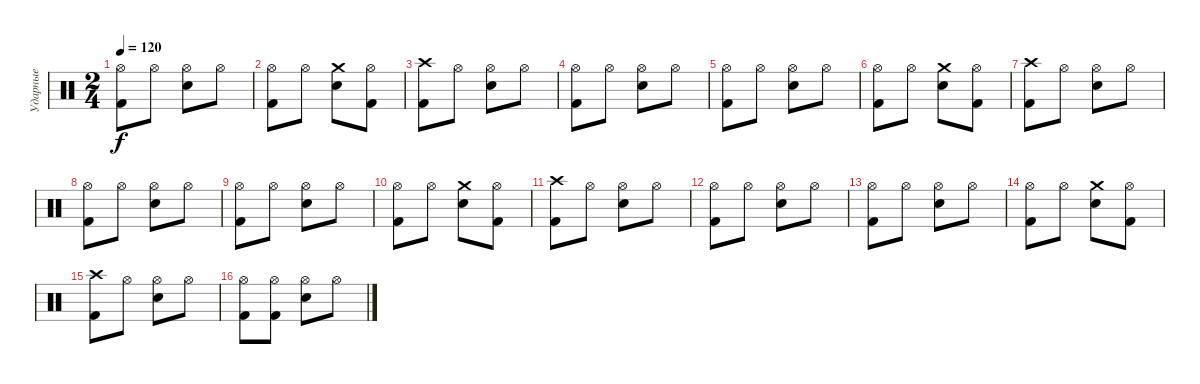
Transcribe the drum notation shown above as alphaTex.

\track ("Ударные" "Ударные") {instrument percussion}
\staff {score}
\articulation defaults
\ts (2 4)
\tempo 120
\clef neutral
\ks c
("Hi-Hat (open)" "Kick (hit) 2").8{dy f} "Hi-Hat (open)".8 ("Hi-Hat (open)" "Electric Snare (hit)").8 "Hi-Hat (open)".8 |
("Hi-Hat (open)" "Kick (hit) 2").8 "Hi-Hat (open)".8 ("Crash medium (hit)" "Electric Snare (hit)").8 ("Hi-Hat (open)" "Kick (hit) 2").8 |
("Crash high (hit)" "Kick (hit) 2").8 "Hi-Hat (open)".8 ("Hi-Hat (open)" "Electric Snare (hit)").8 "Hi-Hat (open)".8 |
("Hi-Hat (open)" "Kick (hit) 2").8 "Hi-Hat (open)".8 ("Hi-Hat (open)" "Electric Snare (hit)").8 "Hi-Hat (open)".8 |
("Hi-Hat (open)" "Kick (hit) 2").8 "Hi-Hat (open)".8 ("Hi-Hat (open)" "Electric Snare (hit)").8 "Hi-Hat (open)".8 |
("Hi-Hat (open)" "Kick (hit) 2").8 "Hi-Hat (open)".8 ("Crash medium (hit)" "Electric Snare (hit)").8 ("Hi-Hat (open)" "Kick (hit) 2").8 |
("Crash high (hit)" "Kick (hit) 2").8 "Hi-Hat (open)".8 ("Hi-Hat (open)" "Electric Snare (hit)").8 "Hi-Hat (open)".8 |
("Hi-Hat (open)" "Kick (hit) 2").8 "Hi-Hat (open)".8 ("Hi-Hat (open)" "Electric Snare (hit)").8 "Hi-Hat (open)".8 |
("Hi-Hat (open)" "Kick (hit) 2").8 "Hi-Hat (open)".8 ("Hi-Hat (open)" "Electric Snare (hit)").8 "Hi-Hat (open)".8 |
("Hi-Hat (open)" "Kick (hit) 2").8 "Hi-Hat (open)".8 ("Crash medium (hit)" "Electric Snare (hit)").8 ("Hi-Hat (open)" "Kick (hit) 2").8 |
("Crash high (hit)" "Kick (hit) 2").8 "Hi-Hat (open)".8 ("Hi-Hat (open)" "Electric Snare (hit)").8 "Hi-Hat (open)".8 |
("Hi-Hat (open)" "Kick (hit) 2").8 "Hi-Hat (open)".8 ("Hi-Hat (open)" "Electric Snare (hit)").8 "Hi-Hat (open)".8 |
("Hi-Hat (open)" "Kick (hit) 2").8 "Hi-Hat (open)".8 ("Hi-Hat (open)" "Electric Snare (hit)").8 "Hi-Hat (open)".8 |
("Hi-Hat (open)" "Kick (hit) 2").8 "Hi-Hat (open)".8 ("Crash medium (hit)" "Electric Snare (hit)").8 ("Hi-Hat (open)" "Kick (hit) 2").8 |
("Crash high (hit)" "Kick (hit) 2").8 "Hi-Hat (open)".8 ("Hi-Hat (open)" "Electric Snare (hit)").8 "Hi-Hat (open)".8 |
("Hi-Hat (open)" "Kick (hit) 2").8 ("Hi-Hat (open)" "Kick (hit) 2").8 ("Hi-Hat (open)" "Electric Snare (hit)").8 "Hi-Hat (open)".8
